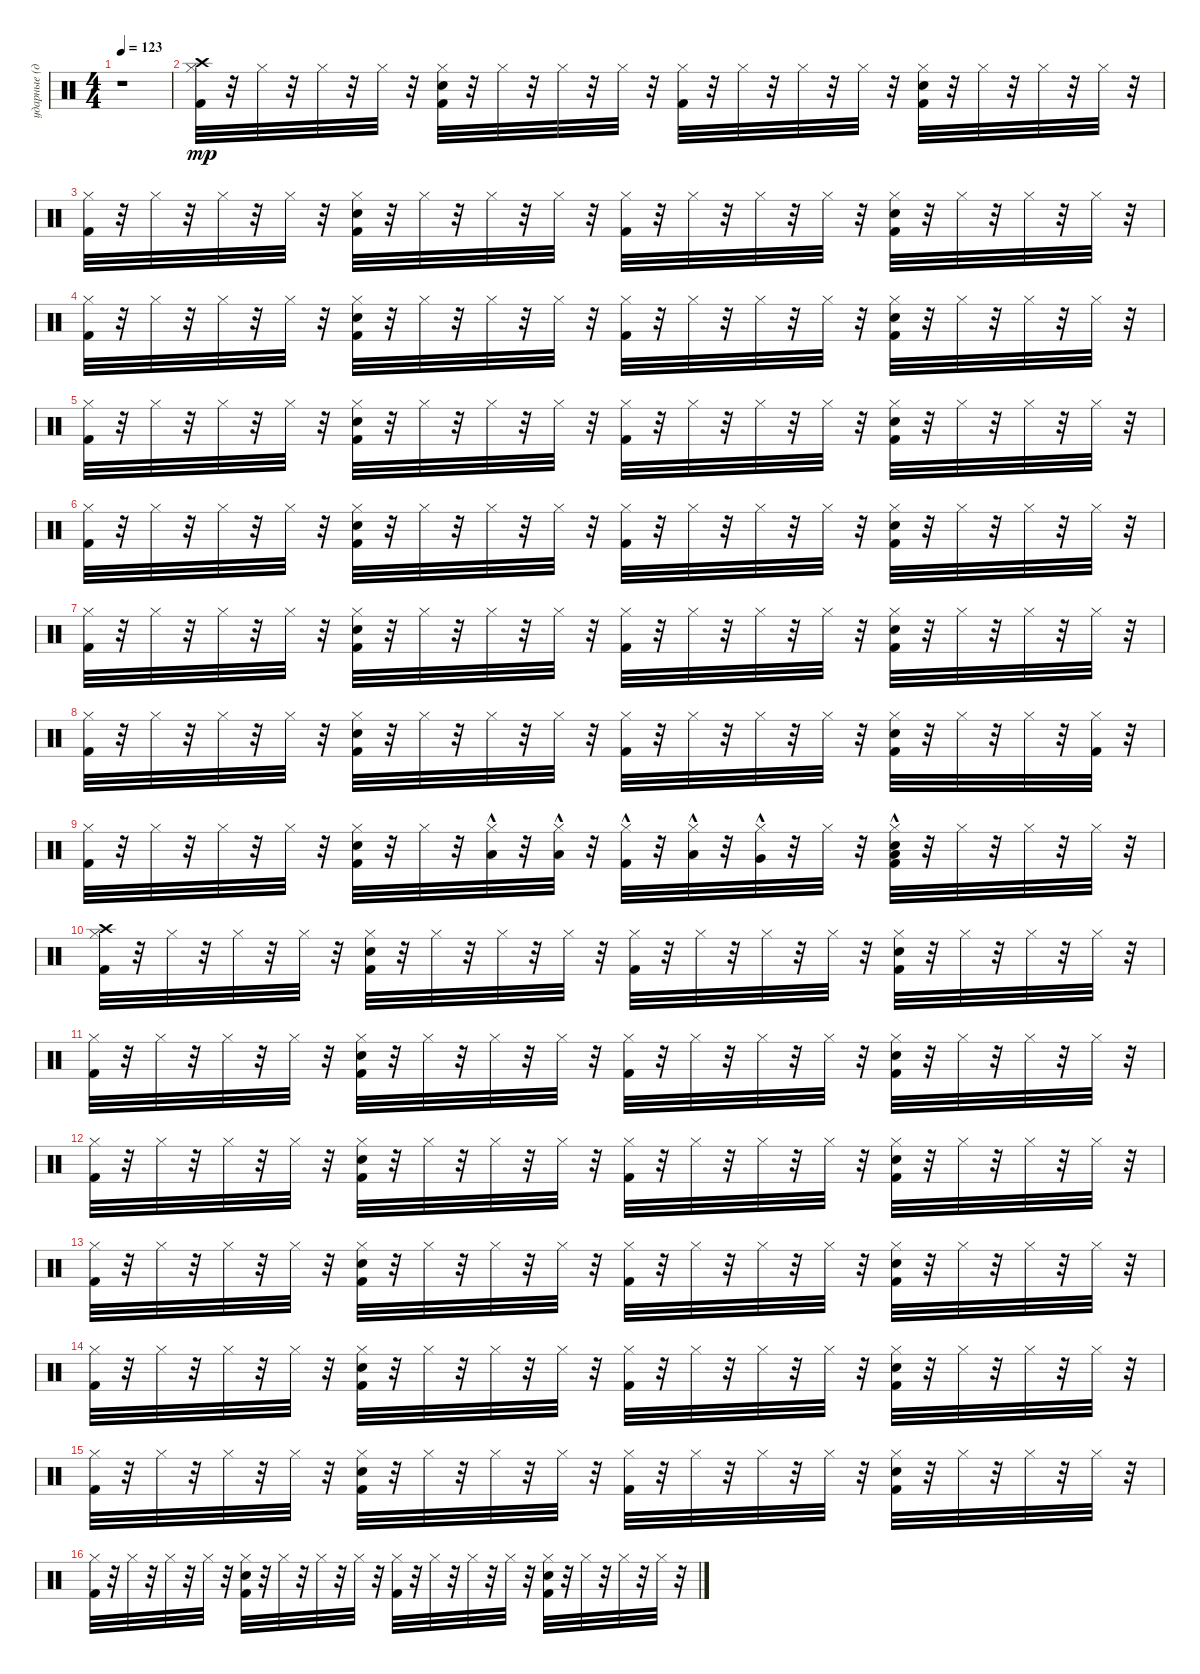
\track ("ударные (драм-машина)" "ударные (д") {instrument percussion}
\staff {score}
\articulation defaults
\ts (4 4)
\tempo 123
\clef neutral
\ks c
r.1{dy mp} |
("Hi-Hat (closed)" "Kick (hit) 2" "Crash high (hit)").32 r.32 "Hi-Hat (closed)".32 r.32 "Hi-Hat (closed)".32 r.32 "Hi-Hat (closed)".32 r.32 ("Kick (hit) 2" "Hi-Hat (closed)" "Snare (hit) 2").32 r.32 "Hi-Hat (closed)".32 r.32 "Hi-Hat (closed)".32 r.32 "Hi-Hat (closed)".32 r.32 ("Hi-Hat (closed)" "Kick (hit) 2").32 r.32 "Hi-Hat (closed)".32 r.32 "Hi-Hat (closed)".32 r.32 "Hi-Hat (closed)".32 r.32 ("Kick (hit) 2" "Hi-Hat (closed)" "Snare (hit) 2").32 r.32 "Hi-Hat (closed)".32 r.32 "Hi-Hat (closed)".32 r.32 "Hi-Hat (closed)".32 r.32 |
("Kick (hit) 2" "Hi-Hat (closed)").32 r.32 "Hi-Hat (closed)".32 r.32 "Hi-Hat (closed)".32 r.32 "Hi-Hat (closed)".32 r.32 ("Kick (hit) 2" "Snare (hit) 2" "Hi-Hat (closed)").32 r.32 "Hi-Hat (closed)".32 r.32 "Hi-Hat (closed)".32 r.32 "Hi-Hat (closed)".32 r.32 ("Kick (hit) 2" "Hi-Hat (closed)").32 r.32 "Hi-Hat (closed)".32 r.32 "Hi-Hat (closed)".32 r.32 "Hi-Hat (closed)".32 r.32 ("Kick (hit) 2" "Snare (hit) 2" "Hi-Hat (closed)").32 r.32 "Hi-Hat (closed)".32 r.32 "Hi-Hat (closed)".32 r.32 "Hi-Hat (closed)".32 r.32 |
("Kick (hit) 2" "Hi-Hat (closed)").32 r.32 "Hi-Hat (closed)".32 r.32 "Hi-Hat (closed)".32 r.32 "Hi-Hat (closed)".32 r.32 ("Kick (hit) 2" "Snare (hit) 2" "Hi-Hat (closed)").32 r.32 "Hi-Hat (closed)".32 r.32 "Hi-Hat (closed)".32 r.32 "Hi-Hat (closed)".32 r.32 ("Kick (hit) 2" "Hi-Hat (closed)").32 r.32 "Hi-Hat (closed)".32 r.32 "Hi-Hat (closed)".32 r.32 "Hi-Hat (closed)".32 r.32 ("Kick (hit) 2" "Snare (hit) 2" "Hi-Hat (closed)").32 r.32 "Hi-Hat (closed)".32 r.32 "Hi-Hat (closed)".32 r.32 "Hi-Hat (closed)".32 r.32 |
("Kick (hit) 2" "Hi-Hat (closed)").32 r.32 "Hi-Hat (closed)".32 r.32 "Hi-Hat (closed)".32 r.32 "Hi-Hat (closed)".32 r.32 ("Kick (hit) 2" "Snare (hit) 2" "Hi-Hat (closed)").32 r.32 "Hi-Hat (closed)".32 r.32 "Hi-Hat (closed)".32 r.32 "Hi-Hat (closed)".32 r.32 ("Kick (hit) 2" "Hi-Hat (closed)").32 r.32 "Hi-Hat (closed)".32 r.32 "Hi-Hat (closed)".32 r.32 "Hi-Hat (closed)".32 r.32 ("Kick (hit) 2" "Snare (hit) 2" "Hi-Hat (closed)").32 r.32 "Hi-Hat (closed)".32 r.32 "Hi-Hat (closed)".32 r.32 "Hi-Hat (closed)".32 r.32 |
("Kick (hit) 2" "Hi-Hat (closed)").32 r.32 "Hi-Hat (closed)".32 r.32 "Hi-Hat (closed)".32 r.32 "Hi-Hat (closed)".32 r.32 ("Kick (hit) 2" "Snare (hit) 2" "Hi-Hat (closed)").32 r.32 "Hi-Hat (closed)".32 r.32 "Hi-Hat (closed)".32 r.32 "Hi-Hat (closed)".32 r.32 ("Kick (hit) 2" "Hi-Hat (closed)").32 r.32 "Hi-Hat (closed)".32 r.32 "Hi-Hat (closed)".32 r.32 "Hi-Hat (closed)".32 r.32 ("Kick (hit) 2" "Snare (hit) 2" "Hi-Hat (closed)").32 r.32 "Hi-Hat (closed)".32 r.32 "Hi-Hat (closed)".32 r.32 "Hi-Hat (closed)".32 r.32 |
("Kick (hit) 2" "Hi-Hat (closed)").32 r.32 "Hi-Hat (closed)".32 r.32 "Hi-Hat (closed)".32 r.32 "Hi-Hat (closed)".32 r.32 ("Kick (hit) 2" "Snare (hit) 2" "Hi-Hat (closed)").32 r.32 "Hi-Hat (closed)".32 r.32 "Hi-Hat (closed)".32 r.32 "Hi-Hat (closed)".32 r.32 ("Kick (hit) 2" "Hi-Hat (closed)").32 r.32 "Hi-Hat (closed)".32 r.32 "Hi-Hat (closed)".32 r.32 "Hi-Hat (closed)".32 r.32 ("Kick (hit) 2" "Snare (hit) 2" "Hi-Hat (closed)").32 r.32 "Hi-Hat (closed)".32 r.32 "Hi-Hat (closed)".32 r.32 "Hi-Hat (closed)".32 r.32 |
("Kick (hit) 2" "Hi-Hat (closed)").32 r.32 "Hi-Hat (closed)".32 r.32 "Hi-Hat (closed)".32 r.32 "Hi-Hat (closed)".32 r.32 ("Kick (hit) 2" "Snare (hit) 2" "Hi-Hat (closed)").32 r.32 "Hi-Hat (closed)".32 r.32 "Hi-Hat (closed)".32 r.32 "Hi-Hat (closed)".32 r.32 ("Kick (hit) 2" "Hi-Hat (closed)").32 r.32 "Hi-Hat (closed)".32 r.32 "Hi-Hat (closed)".32 r.32 "Hi-Hat (closed)".32 r.32 ("Kick (hit) 2" "Snare (hit) 2" "Hi-Hat (closed)").32 r.32 "Hi-Hat (closed)".32 r.32 "Hi-Hat (closed)".32 r.32 ("Kick (hit) 2" "Hi-Hat (closed)").32 r.32 |
("Kick (hit) 2" "Hi-Hat (closed)").32 r.32 "Hi-Hat (closed)".32 r.32 "Hi-Hat (closed)".32 r.32 "Hi-Hat (closed)".32 r.32 ("Kick (hit) 2" "Snare (hit) 2" "Hi-Hat (closed)").32 r.32 "Hi-Hat (closed)".32 r.32 ("Low Tom (hit)"{hac} "Hi-Hat (closed)").32 r.32 ("Low Tom (hit)"{hac} "Hi-Hat (closed)").32 r.32 ("Kick (hit) 2"{hac} "Hi-Hat (closed)").32 r.32 ("Low Tom (hit)"{hac} "Hi-Hat (closed)").32 r.32 ("Very Low Tom (hit)"{hac} "Hi-Hat (closed)").32 r.32 "Hi-Hat (closed)".32 r.32 ("Kick (hit) 2" "Low Floor Tom (hit)"{hac} "Snare (hit) 2" "Hi-Hat (closed)").32 r.32 "Hi-Hat (closed)".32 r.32 "Hi-Hat (closed)".32 r.32 "Hi-Hat (closed)".32 r.32 |
("Hi-Hat (closed)" "Kick (hit) 2" "Crash high (hit)").32 r.32 "Hi-Hat (closed)".32 r.32 "Hi-Hat (closed)".32 r.32 "Hi-Hat (closed)".32 r.32 ("Kick (hit) 2" "Hi-Hat (closed)" "Snare (hit) 2").32 r.32 "Hi-Hat (closed)".32 r.32 "Hi-Hat (closed)".32 r.32 "Hi-Hat (closed)".32 r.32 ("Hi-Hat (closed)" "Kick (hit) 2").32 r.32 "Hi-Hat (closed)".32 r.32 "Hi-Hat (closed)".32 r.32 "Hi-Hat (closed)".32 r.32 ("Kick (hit) 2" "Hi-Hat (closed)" "Snare (hit) 2").32 r.32 "Hi-Hat (closed)".32 r.32 "Hi-Hat (closed)".32 r.32 "Hi-Hat (closed)".32 r.32 |
("Kick (hit) 2" "Hi-Hat (closed)").32 r.32 "Hi-Hat (closed)".32 r.32 "Hi-Hat (closed)".32 r.32 "Hi-Hat (closed)".32 r.32 ("Kick (hit) 2" "Snare (hit) 2" "Hi-Hat (closed)").32 r.32 "Hi-Hat (closed)".32 r.32 "Hi-Hat (closed)".32 r.32 "Hi-Hat (closed)".32 r.32 ("Kick (hit) 2" "Hi-Hat (closed)").32 r.32 "Hi-Hat (closed)".32 r.32 "Hi-Hat (closed)".32 r.32 "Hi-Hat (closed)".32 r.32 ("Kick (hit) 2" "Snare (hit) 2" "Hi-Hat (closed)").32 r.32 "Hi-Hat (closed)".32 r.32 "Hi-Hat (closed)".32 r.32 "Hi-Hat (closed)".32 r.32 |
("Kick (hit) 2" "Hi-Hat (closed)").32 r.32 "Hi-Hat (closed)".32 r.32 "Hi-Hat (closed)".32 r.32 "Hi-Hat (closed)".32 r.32 ("Kick (hit) 2" "Snare (hit) 2" "Hi-Hat (closed)").32 r.32 "Hi-Hat (closed)".32 r.32 "Hi-Hat (closed)".32 r.32 "Hi-Hat (closed)".32 r.32 ("Kick (hit) 2" "Hi-Hat (closed)").32 r.32 "Hi-Hat (closed)".32 r.32 "Hi-Hat (closed)".32 r.32 "Hi-Hat (closed)".32 r.32 ("Kick (hit) 2" "Snare (hit) 2" "Hi-Hat (closed)").32 r.32 "Hi-Hat (closed)".32 r.32 "Hi-Hat (closed)".32 r.32 "Hi-Hat (closed)".32 r.32 |
("Kick (hit) 2" "Hi-Hat (closed)").32 r.32 "Hi-Hat (closed)".32 r.32 "Hi-Hat (closed)".32 r.32 "Hi-Hat (closed)".32 r.32 ("Kick (hit) 2" "Snare (hit) 2" "Hi-Hat (closed)").32 r.32 "Hi-Hat (closed)".32 r.32 "Hi-Hat (closed)".32 r.32 "Hi-Hat (closed)".32 r.32 ("Kick (hit) 2" "Hi-Hat (closed)").32 r.32 "Hi-Hat (closed)".32 r.32 "Hi-Hat (closed)".32 r.32 "Hi-Hat (closed)".32 r.32 ("Kick (hit) 2" "Snare (hit) 2" "Hi-Hat (closed)").32 r.32 "Hi-Hat (closed)".32 r.32 "Hi-Hat (closed)".32 r.32 "Hi-Hat (closed)".32 r.32 |
("Kick (hit) 2" "Hi-Hat (closed)").32 r.32 "Hi-Hat (closed)".32 r.32 "Hi-Hat (closed)".32 r.32 "Hi-Hat (closed)".32 r.32 ("Kick (hit) 2" "Snare (hit) 2" "Hi-Hat (closed)").32 r.32 "Hi-Hat (closed)".32 r.32 "Hi-Hat (closed)".32 r.32 "Hi-Hat (closed)".32 r.32 ("Kick (hit) 2" "Hi-Hat (closed)").32 r.32 "Hi-Hat (closed)".32 r.32 "Hi-Hat (closed)".32 r.32 "Hi-Hat (closed)".32 r.32 ("Snare (hit) 2" "Hi-Hat (closed)" "Kick (hit) 2").32 r.32 "Hi-Hat (closed)".32 r.32 "Hi-Hat (closed)".32 r.32 "Hi-Hat (closed)".32 r.32 |
("Kick (hit) 2" "Hi-Hat (closed)").32 r.32 "Hi-Hat (closed)".32 r.32 "Hi-Hat (closed)".32 r.32 "Hi-Hat (closed)".32 r.32 ("Kick (hit) 2" "Snare (hit) 2" "Hi-Hat (closed)").32 r.32 "Hi-Hat (closed)".32 r.32 "Hi-Hat (closed)".32 r.32 "Hi-Hat (closed)".32 r.32 ("Kick (hit) 2" "Hi-Hat (closed)").32 r.32 "Hi-Hat (closed)".32 r.32 "Hi-Hat (closed)".32 r.32 "Hi-Hat (closed)".32 r.32 ("Kick (hit) 2" "Snare (hit) 2" "Hi-Hat (closed)").32 r.32 "Hi-Hat (closed)".32 r.32 "Hi-Hat (closed)".32 r.32 "Hi-Hat (closed)".32 r.32 |
("Kick (hit) 2" "Hi-Hat (closed)").32 r.32 "Hi-Hat (closed)".32 r.32 "Hi-Hat (closed)".32 r.32 "Hi-Hat (closed)".32 r.32 ("Kick (hit) 2" "Snare (hit) 2" "Hi-Hat (closed)").32 r.32 "Hi-Hat (closed)".32 r.32 "Hi-Hat (closed)".32 r.32 "Hi-Hat (closed)".32 r.32 ("Kick (hit) 2" "Hi-Hat (closed)").32 r.32 "Hi-Hat (closed)".32 r.32 "Hi-Hat (closed)".32 r.32 "Hi-Hat (closed)".32 r.32 ("Kick (hit) 2" "Snare (hit) 2" "Hi-Hat (closed)").32 r.32 "Hi-Hat (closed)".32 r.32 "Hi-Hat (closed)".32 r.32 "Hi-Hat (closed)".32 r.32
